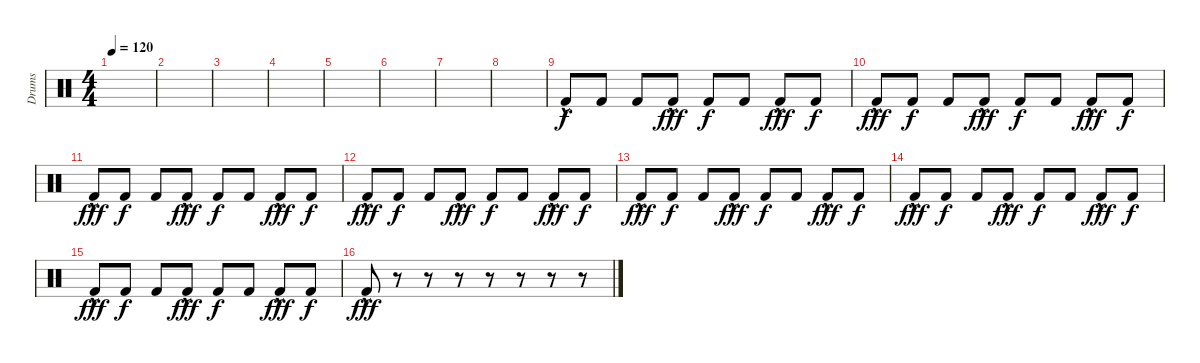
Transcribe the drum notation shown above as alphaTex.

\track ("Drums" "Drums") {instrument percussion}
\staff {score}
\articulation defaults
\ts (4 4)
\tempo 120
\clef neutral
\ks c
|
|
|
|
|
|
|
|
"Kick (hit) 2"{hac}.8 "Kick (hit) 2".8{dy f} "Kick (hit) 2".8 "Kick (hit) 2"{hac}.8{dy fff} "Kick (hit) 2".8{dy f} "Kick (hit) 2".8 "Kick (hit) 2"{hac}.8{dy fff} "Kick (hit) 2".8{dy f} |
"Kick (hit) 2"{hac}.8{dy fff} "Kick (hit) 2".8{dy f} "Kick (hit) 2".8 "Kick (hit) 2"{hac}.8{dy fff} "Kick (hit) 2".8{dy f} "Kick (hit) 2".8 "Kick (hit) 2"{hac}.8{dy fff} "Kick (hit) 2".8{dy f} |
"Kick (hit) 2"{hac}.8{dy fff} "Kick (hit) 2".8{dy f} "Kick (hit) 2".8 "Kick (hit) 2"{hac}.8{dy fff} "Kick (hit) 2".8{dy f} "Kick (hit) 2".8 "Kick (hit) 2"{hac}.8{dy fff} "Kick (hit) 2".8{dy f} |
"Kick (hit) 2"{hac}.8{dy fff} "Kick (hit) 2".8{dy f} "Kick (hit) 2".8 "Kick (hit) 2"{hac}.8{dy fff} "Kick (hit) 2".8{dy f} "Kick (hit) 2".8 "Kick (hit) 2"{hac}.8{dy fff} "Kick (hit) 2".8{dy f} |
"Kick (hit) 2"{hac}.8{dy fff} "Kick (hit) 2".8{dy f} "Kick (hit) 2".8 "Kick (hit) 2"{hac}.8{dy fff} "Kick (hit) 2".8{dy f} "Kick (hit) 2".8 "Kick (hit) 2"{hac}.8{dy fff} "Kick (hit) 2".8{dy f} |
"Kick (hit) 2"{hac}.8{dy fff} "Kick (hit) 2".8{dy f} "Kick (hit) 2".8 "Kick (hit) 2"{hac}.8{dy fff} "Kick (hit) 2".8{dy f} "Kick (hit) 2".8 "Kick (hit) 2"{hac}.8{dy fff} "Kick (hit) 2".8{dy f} |
"Kick (hit) 2"{hac}.8{dy fff} "Kick (hit) 2".8{dy f} "Kick (hit) 2".8 "Kick (hit) 2"{hac}.8{dy fff} "Kick (hit) 2".8{dy f} "Kick (hit) 2".8 "Kick (hit) 2"{hac}.8{dy fff} "Kick (hit) 2".8{dy f} |
"Kick (hit) 2"{hac}.8{dy fff} r.8 r.8 r.8 r.8 r.8 r.8 r.8
